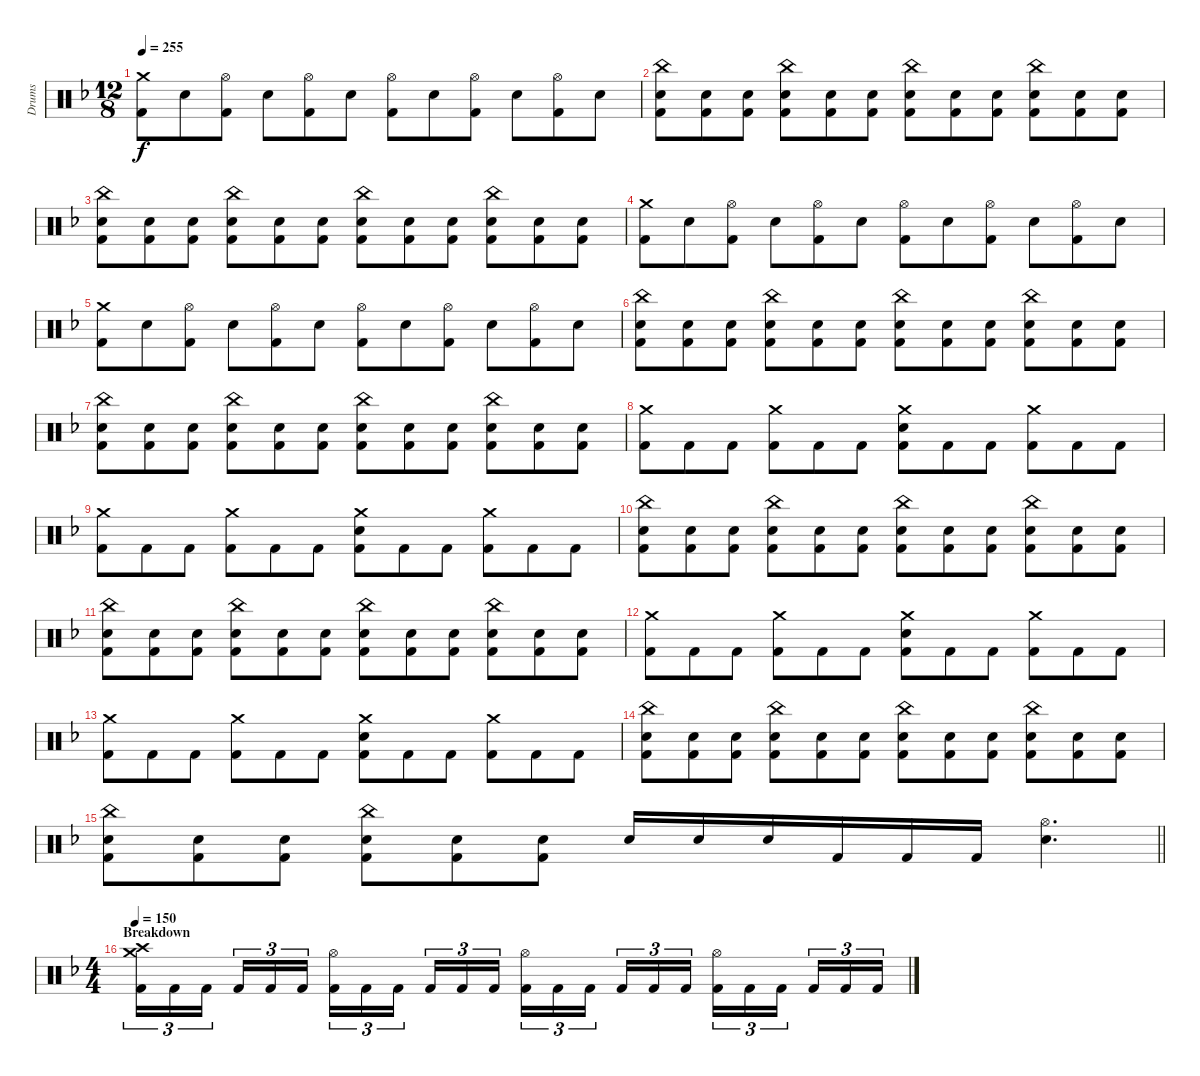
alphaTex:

\track ("Drums" "Drums") {instrument percussion}
\staff {score}
\articulation defaults
\ts (12 8)
\tempo 255
\clef neutral
\ks dminor
("Crash medium (hit)" "Kick (hit) 2").8{dy f} "Electric Snare (hit)".8 ("Hi-Hat (open)" "Kick (hit) 2").8 "Electric Snare (hit)".8 ("Hi-Hat (open)" "Kick (hit) 2").8 "Electric Snare (hit)".8 ("Hi-Hat (open)" "Kick (hit) 2").8 "Electric Snare (hit)".8 ("Hi-Hat (open)" "Kick (hit) 2").8 "Electric Snare (hit)".8 ("Hi-Hat (open)" "Kick (hit) 2").8 "Electric Snare (hit)".8 |
("China (hit)" "Electric Snare (hit)" "Kick (hit) 2").8 ("Electric Snare (hit)" "Kick (hit) 2").8 ("Electric Snare (hit)" "Kick (hit) 2").8 ("China (hit)" "Electric Snare (hit)" "Kick (hit) 2").8 ("Electric Snare (hit)" "Kick (hit) 2").8 ("Electric Snare (hit)" "Kick (hit) 2").8 ("China (hit)" "Electric Snare (hit)" "Kick (hit) 2").8 ("Electric Snare (hit)" "Kick (hit) 2").8 ("Electric Snare (hit)" "Kick (hit) 2").8 ("China (hit)" "Electric Snare (hit)" "Kick (hit) 2").8 ("Electric Snare (hit)" "Kick (hit) 2").8 ("Electric Snare (hit)" "Kick (hit) 2").8 |
("China (hit)" "Electric Snare (hit)" "Kick (hit) 2").8 ("Electric Snare (hit)" "Kick (hit) 2").8 ("Electric Snare (hit)" "Kick (hit) 2").8 ("China (hit)" "Electric Snare (hit)" "Kick (hit) 2").8 ("Electric Snare (hit)" "Kick (hit) 2").8 ("Electric Snare (hit)" "Kick (hit) 2").8 ("China (hit)" "Electric Snare (hit)" "Kick (hit) 2").8 ("Electric Snare (hit)" "Kick (hit) 2").8 ("Electric Snare (hit)" "Kick (hit) 2").8 ("China (hit)" "Electric Snare (hit)" "Kick (hit) 2").8 ("Electric Snare (hit)" "Kick (hit) 2").8 ("Electric Snare (hit)" "Kick (hit) 2").8 |
("Crash medium (hit)" "Kick (hit) 2").8 "Electric Snare (hit)".8 ("Hi-Hat (open)" "Kick (hit) 2").8 "Electric Snare (hit)".8 ("Hi-Hat (open)" "Kick (hit) 2").8 "Electric Snare (hit)".8 ("Hi-Hat (open)" "Kick (hit) 2").8 "Electric Snare (hit)".8 ("Hi-Hat (open)" "Kick (hit) 2").8 "Electric Snare (hit)".8 ("Hi-Hat (open)" "Kick (hit) 2").8 "Electric Snare (hit)".8 |
("Crash medium (hit)" "Kick (hit) 2").8 "Electric Snare (hit)".8 ("Hi-Hat (open)" "Kick (hit) 2").8 "Electric Snare (hit)".8 ("Hi-Hat (open)" "Kick (hit) 2").8 "Electric Snare (hit)".8 ("Hi-Hat (open)" "Kick (hit) 2").8 "Electric Snare (hit)".8 ("Hi-Hat (open)" "Kick (hit) 2").8 "Electric Snare (hit)".8 ("Hi-Hat (open)" "Kick (hit) 2").8 "Electric Snare (hit)".8 |
("China (hit)" "Electric Snare (hit)" "Kick (hit) 2").8 ("Electric Snare (hit)" "Kick (hit) 2").8 ("Electric Snare (hit)" "Kick (hit) 2").8 ("China (hit)" "Electric Snare (hit)" "Kick (hit) 2").8 ("Electric Snare (hit)" "Kick (hit) 2").8 ("Electric Snare (hit)" "Kick (hit) 2").8 ("China (hit)" "Electric Snare (hit)" "Kick (hit) 2").8 ("Electric Snare (hit)" "Kick (hit) 2").8 ("Electric Snare (hit)" "Kick (hit) 2").8 ("China (hit)" "Electric Snare (hit)" "Kick (hit) 2").8 ("Electric Snare (hit)" "Kick (hit) 2").8 ("Electric Snare (hit)" "Kick (hit) 2").8 |
("China (hit)" "Electric Snare (hit)" "Kick (hit) 2").8 ("Electric Snare (hit)" "Kick (hit) 2").8 ("Electric Snare (hit)" "Kick (hit) 2").8 ("China (hit)" "Electric Snare (hit)" "Kick (hit) 2").8 ("Electric Snare (hit)" "Kick (hit) 2").8 ("Electric Snare (hit)" "Kick (hit) 2").8 ("China (hit)" "Electric Snare (hit)" "Kick (hit) 2").8 ("Electric Snare (hit)" "Kick (hit) 2").8 ("Electric Snare (hit)" "Kick (hit) 2").8 ("China (hit)" "Electric Snare (hit)" "Kick (hit) 2").8 ("Electric Snare (hit)" "Kick (hit) 2").8 ("Electric Snare (hit)" "Kick (hit) 2").8 |
("Crash medium (hit)" "Kick (hit) 2").8 "Kick (hit) 2".8 "Kick (hit) 2".8 ("Crash medium (hit)" "Kick (hit) 2").8 "Kick (hit) 2".8 "Kick (hit) 2".8 ("Crash medium (hit)" "Electric Snare (hit)" "Kick (hit) 2").8 "Kick (hit) 2".8 "Kick (hit) 2".8 ("Crash medium (hit)" "Kick (hit) 2").8 "Kick (hit) 2".8 "Kick (hit) 2".8 |
("Crash medium (hit)" "Kick (hit) 2").8 "Kick (hit) 2".8 "Kick (hit) 2".8 ("Crash medium (hit)" "Kick (hit) 2").8 "Kick (hit) 2".8 "Kick (hit) 2".8 ("Crash medium (hit)" "Electric Snare (hit)" "Kick (hit) 2").8 "Kick (hit) 2".8 "Kick (hit) 2".8 ("Crash medium (hit)" "Kick (hit) 2").8 "Kick (hit) 2".8 "Kick (hit) 2".8 |
("China (hit)" "Electric Snare (hit)" "Kick (hit) 2").8 ("Electric Snare (hit)" "Kick (hit) 2").8 ("Electric Snare (hit)" "Kick (hit) 2").8 ("China (hit)" "Electric Snare (hit)" "Kick (hit) 2").8 ("Electric Snare (hit)" "Kick (hit) 2").8 ("Electric Snare (hit)" "Kick (hit) 2").8 ("China (hit)" "Electric Snare (hit)" "Kick (hit) 2").8 ("Electric Snare (hit)" "Kick (hit) 2").8 ("Electric Snare (hit)" "Kick (hit) 2").8 ("China (hit)" "Electric Snare (hit)" "Kick (hit) 2").8 ("Electric Snare (hit)" "Kick (hit) 2").8 ("Electric Snare (hit)" "Kick (hit) 2").8 |
("China (hit)" "Electric Snare (hit)" "Kick (hit) 2").8 ("Electric Snare (hit)" "Kick (hit) 2").8 ("Electric Snare (hit)" "Kick (hit) 2").8 ("China (hit)" "Electric Snare (hit)" "Kick (hit) 2").8 ("Electric Snare (hit)" "Kick (hit) 2").8 ("Electric Snare (hit)" "Kick (hit) 2").8 ("China (hit)" "Electric Snare (hit)" "Kick (hit) 2").8 ("Electric Snare (hit)" "Kick (hit) 2").8 ("Electric Snare (hit)" "Kick (hit) 2").8 ("China (hit)" "Electric Snare (hit)" "Kick (hit) 2").8 ("Electric Snare (hit)" "Kick (hit) 2").8 ("Electric Snare (hit)" "Kick (hit) 2").8 |
("Crash medium (hit)" "Kick (hit) 2").8 "Kick (hit) 2".8 "Kick (hit) 2".8 ("Crash medium (hit)" "Kick (hit) 2").8 "Kick (hit) 2".8 "Kick (hit) 2".8 ("Crash medium (hit)" "Electric Snare (hit)" "Kick (hit) 2").8 "Kick (hit) 2".8 "Kick (hit) 2".8 ("Crash medium (hit)" "Kick (hit) 2").8 "Kick (hit) 2".8 "Kick (hit) 2".8 |
("Crash medium (hit)" "Kick (hit) 2").8 "Kick (hit) 2".8 "Kick (hit) 2".8 ("Crash medium (hit)" "Kick (hit) 2").8 "Kick (hit) 2".8 "Kick (hit) 2".8 ("Crash medium (hit)" "Electric Snare (hit)" "Kick (hit) 2").8 "Kick (hit) 2".8 "Kick (hit) 2".8 ("Crash medium (hit)" "Kick (hit) 2").8 "Kick (hit) 2".8 "Kick (hit) 2".8 |
("China (hit)" "Electric Snare (hit)" "Kick (hit) 2").8 ("Electric Snare (hit)" "Kick (hit) 2").8 ("Electric Snare (hit)" "Kick (hit) 2").8 ("China (hit)" "Electric Snare (hit)" "Kick (hit) 2").8 ("Electric Snare (hit)" "Kick (hit) 2").8 ("Electric Snare (hit)" "Kick (hit) 2").8 ("China (hit)" "Electric Snare (hit)" "Kick (hit) 2").8 ("Electric Snare (hit)" "Kick (hit) 2").8 ("Electric Snare (hit)" "Kick (hit) 2").8 ("China (hit)" "Electric Snare (hit)" "Kick (hit) 2").8 ("Electric Snare (hit)" "Kick (hit) 2").8 ("Electric Snare (hit)" "Kick (hit) 2").8 |
\barLineRight lightlight
("China (hit)" "Electric Snare (hit)" "Kick (hit) 2").8 ("Electric Snare (hit)" "Kick (hit) 2").8 ("Electric Snare (hit)" "Kick (hit) 2").8 ("China (hit)" "Electric Snare (hit)" "Kick (hit) 2").8 ("Electric Snare (hit)" "Kick (hit) 2").8 ("Electric Snare (hit)" "Kick (hit) 2").8 "Electric Snare (hit)".16 "Electric Snare (hit)".16 "Electric Snare (hit)".16 "Kick (hit) 2".16 "Kick (hit) 2".16 "Kick (hit) 2".16 ("Hi-Hat (open)" "Electric Snare (hit)").4{d} |
\ts (4 4)
\section ("" "Breakdown")
\tempo 150
("Crash medium (hit)" "Crash high (hit)" "Kick (hit) 2").16{tu (3 2)} "Kick (hit) 2".16{tu (3 2)} "Kick (hit) 2".16{tu (3 2) beam splitsecondary} "Kick (hit) 2".16{tu (3 2)} "Kick (hit) 2".16{tu (3 2)} "Kick (hit) 2".16{tu (3 2)} ("Hi-Hat (open)" "Kick (hit) 2").16{tu (3 2)} "Kick (hit) 2".16{tu (3 2)} "Kick (hit) 2".16{tu (3 2) beam splitsecondary} "Kick (hit) 2".16{tu (3 2)} "Kick (hit) 2".16{tu (3 2)} "Kick (hit) 2".16{tu (3 2)} ("Hi-Hat (open)" "Kick (hit) 2").16{tu (3 2)} "Kick (hit) 2".16{tu (3 2)} "Kick (hit) 2".16{tu (3 2) beam splitsecondary} "Kick (hit) 2".16{tu (3 2)} "Kick (hit) 2".16{tu (3 2)} "Kick (hit) 2".16{tu (3 2)} ("Hi-Hat (open)" "Kick (hit) 2").16{tu (3 2)} "Kick (hit) 2".16{tu (3 2)} "Kick (hit) 2".16{tu (3 2) beam splitsecondary} "Kick (hit) 2".16{tu (3 2)} "Kick (hit) 2".16{tu (3 2)} "Kick (hit) 2".16{tu (3 2)}
